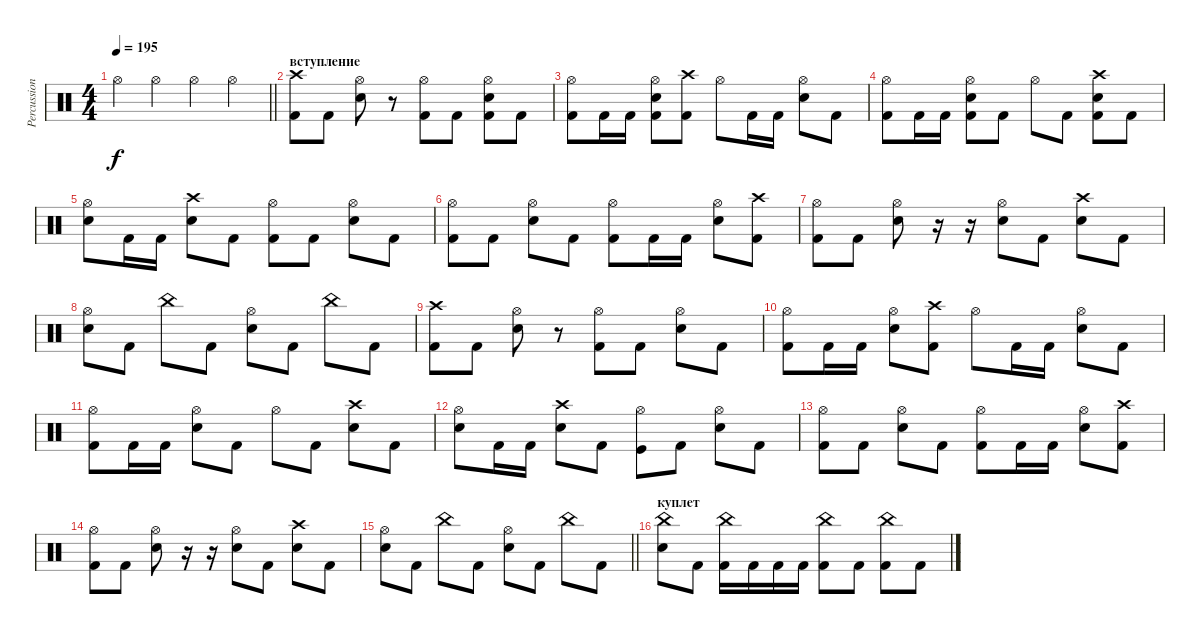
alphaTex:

\track ("Percussions" "Percussion") {instrument percussion}
\staff {score}
\articulation defaults
\ts (4 4)
\tempo 195
\clef neutral
\barLineRight lightlight
\ks c "Hi-Hat (open)".4{dy f} "Hi-Hat (open)".4 "Hi-Hat (open)".4 "Hi-Hat (open)".4
|
\section ("" "вступление")
("Crash high (hit)" "Kick (hit) 2").8 "Kick (hit) 2".8 ("Hi-Hat (open)" "Electric Snare (hit)").8 r.8 ("Hi-Hat (open)" "Kick (hit) 2").8 "Kick (hit) 2".8 ("Hi-Hat (open)" "Electric Snare (hit)" "Kick (hit) 2").8 "Kick (hit) 2".8 |
("Hi-Hat (open)" "Kick (hit) 2").8 "Kick (hit) 2".16 "Kick (hit) 2".16 ("Hi-Hat (open)" "Electric Snare (hit)" "Kick (hit) 2").8 ("Crash high (hit)" "Kick (hit) 2").8 "Hi-Hat (open)".8 "Kick (hit) 2".16 "Kick (hit) 2".16 ("Hi-Hat (open)" "Electric Snare (hit)").8 "Kick (hit) 2".8 |
("Hi-Hat (open)" "Kick (hit) 2").8 "Kick (hit) 2".16 "Kick (hit) 2".16 ("Hi-Hat (open)" "Electric Snare (hit)" "Kick (hit) 2").8 "Kick (hit) 2".8 "Hi-Hat (open)".8 "Kick (hit) 2".8 ("Kick (hit) 2" "Crash high (hit)" "Electric Snare (hit)").8 "Kick (hit) 2".8 |
("Hi-Hat (open)" "Electric Snare (hit)").8 "Kick (hit) 2".16 "Kick (hit) 2".16 ("Crash high (hit)" "Electric Snare (hit)").8 "Kick (hit) 2".8 ("Hi-Hat (open)" "Kick (hit) 2").8 "Kick (hit) 2".8 ("Hi-Hat (open)" "Electric Snare (hit)").8 "Kick (hit) 2".8 |
("Hi-Hat (open)" "Kick (hit) 2").8 "Kick (hit) 2".8 ("Hi-Hat (open)" "Electric Snare (hit)").8 "Kick (hit) 2".8 ("Hi-Hat (open)" "Kick (hit) 2").8 "Kick (hit) 2".16 "Kick (hit) 2".16 ("Hi-Hat (open)" "Electric Snare (hit)").8 ("Crash high (hit)" "Kick (hit) 2").8 |
("Hi-Hat (open)" "Kick (hit) 2").8 "Kick (hit) 2".8 ("Hi-Hat (open)" "Electric Snare (hit)").8 r.16 r.16 ("Hi-Hat (open)" "Electric Snare (hit)").8 "Kick (hit) 2".8 ("Crash high (hit)" "Electric Snare (hit)").8 "Kick (hit) 2".8 |
("Hi-Hat (open)" "Electric Snare (hit)").8 "Kick (hit) 2".8 "China (hit)".8 "Kick (hit) 2".8 ("Hi-Hat (open)" "Electric Snare (hit)").8 "Kick (hit) 2".8 "China (hit)".8 "Kick (hit) 2".8 |
("Crash high (hit)" "Kick (hit) 2").8 "Kick (hit) 2".8 ("Hi-Hat (open)" "Electric Snare (hit)").8 r.8 ("Hi-Hat (open)" "Kick (hit) 2").8 "Kick (hit) 2".8 ("Hi-Hat (open)" "Electric Snare (hit)").8 "Kick (hit) 2".8 |
("Hi-Hat (open)" "Kick (hit) 2").8 "Kick (hit) 2".16 "Kick (hit) 2".16 ("Hi-Hat (open)" "Electric Snare (hit)").8 ("Crash high (hit)" "Kick (hit) 2").8 "Hi-Hat (open)".8 "Kick (hit) 2".16 "Kick (hit) 2".16 ("Hi-Hat (open)" "Electric Snare (hit)").8 "Kick (hit) 2".8 |
("Hi-Hat (open)" "Kick (hit) 2").8 "Kick (hit) 2".16 "Kick (hit) 2".16 ("Hi-Hat (open)" "Electric Snare (hit)").8 "Kick (hit) 2".8 "Hi-Hat (open)".8 "Kick (hit) 2".8 ("Crash high (hit)" "Electric Snare (hit)").8 "Kick (hit) 2".8 |
("Hi-Hat (open)" "Electric Snare (hit)").8 "Kick (hit) 2".16 "Kick (hit) 2".16 ("Crash high (hit)" "Electric Snare (hit)").8 "Kick (hit) 2".8 ("Hi-Hat (open)" "Kick (hit)").8 "Kick (hit) 2".8 ("Hi-Hat (open)" "Electric Snare (hit)").8 "Kick (hit) 2".8 |
("Hi-Hat (open)" "Kick (hit) 2").8 "Kick (hit) 2".8 ("Hi-Hat (open)" "Electric Snare (hit)").8 "Kick (hit) 2".8 ("Hi-Hat (open)" "Kick (hit) 2").8 "Kick (hit) 2".16 "Kick (hit) 2".16 ("Hi-Hat (open)" "Electric Snare (hit)").8 ("Crash high (hit)" "Kick (hit) 2").8 |
("Hi-Hat (open)" "Kick (hit) 2").8 "Kick (hit) 2".8 ("Hi-Hat (open)" "Electric Snare (hit)").8 r.16 r.16 ("Hi-Hat (open)" "Electric Snare (hit)").8 "Kick (hit) 2".8 ("Crash high (hit)" "Electric Snare (hit)").8 "Kick (hit) 2".8 |
\barLineRight lightlight
("Hi-Hat (open)" "Electric Snare (hit)").8 "Kick (hit) 2".8 "China (hit)".8 "Kick (hit) 2".8 ("Hi-Hat (open)" "Electric Snare (hit)").8 "Kick (hit) 2".8 "China (hit)".8 "Kick (hit) 2".8 |
\section ("" "куплет")
("China (hit)" "Electric Snare (hit)").8 "Kick (hit) 2".8 ("China (hit)" "Kick (hit) 2").16 "Kick (hit) 2".16 "Kick (hit) 2".16 "Kick (hit) 2".16 ("China (hit)" "Kick (hit) 2").8 "Kick (hit) 2".8 ("China (hit)" "Kick (hit) 2").8 "Kick (hit) 2".8
